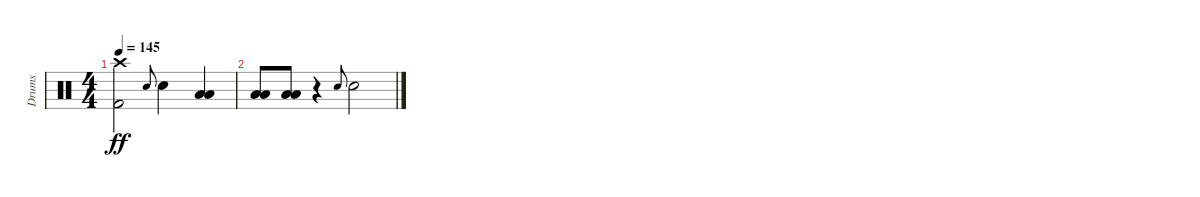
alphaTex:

\track ("Drums" "Drums") {instrument percussion}
\staff {score}
\articulation defaults
\ts (4 4)
\tempo 145
\clef neutral
\ks c
("Crash high (hit)" "Kick (hit) 2").2{dy ff} "Electric Snare (hit)".8{gr onbeat} "Electric Snare (hit)".4 ("Low Tom (hit)" "Low Floor Tom (hit)").4 |
("Low Tom (hit)" "Low Floor Tom (hit)").8 ("Low Tom (hit)" "Low Floor Tom (hit)").8 r.4 "Electric Snare (hit)".8{gr onbeat} "Electric Snare (hit)".2
